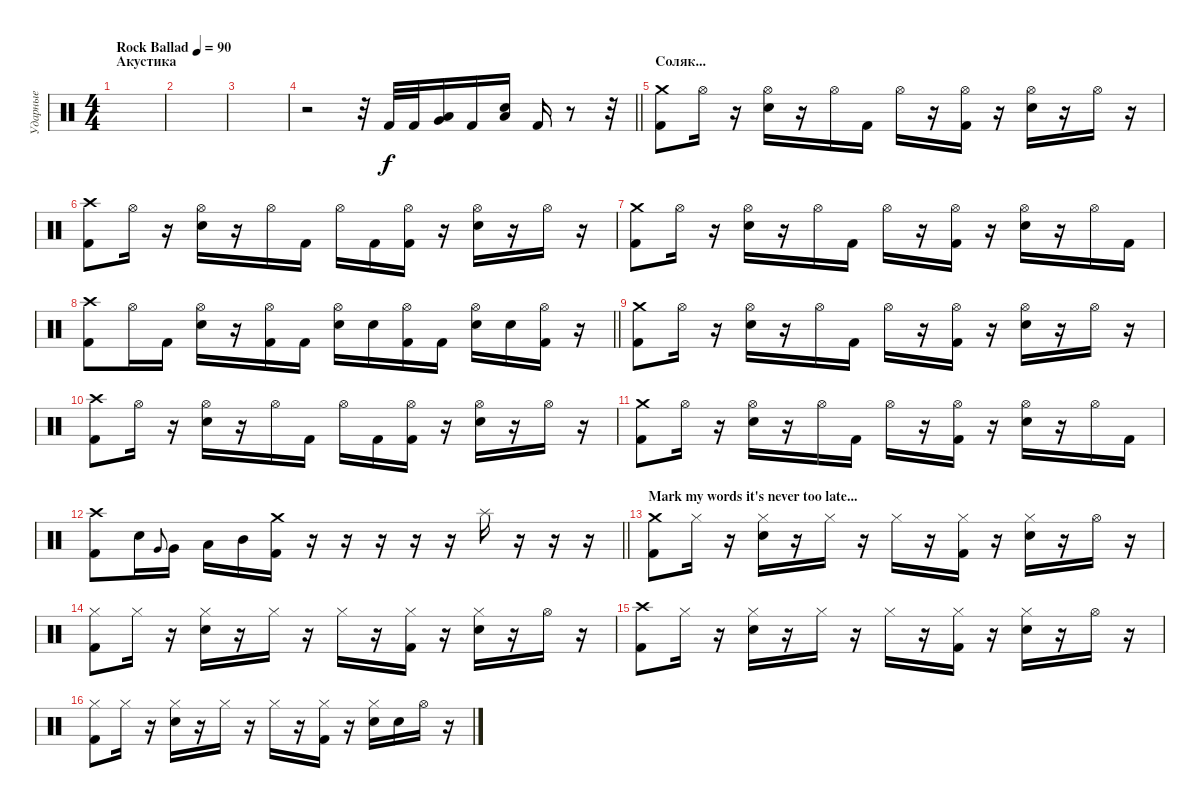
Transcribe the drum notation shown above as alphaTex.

\track ("Ударные" "Ударные") {instrument percussion}
\staff {score}
\articulation defaults
\ts (4 4)
\section ("" "Акустика")
\tempo (90 "Rock Ballad")
\clef neutral
\ks c
|
|
|
\barLineRight lightlight
r.2 r.32 "Kick (hit) 2".32 "Kick (hit) 2".32 ("Very Low Tom (hit)" "Low Tom (hit)").16 "Kick (hit) 2".16 ("Electric Snare (hit)" "Low Tom (hit)").16 "Kick (hit) 2".16 r.8 r.32 |
\section ("" "Соляк...")
("Crash medium (hit)" "Kick (hit) 2").8 "Hi-Hat (open)".16 r.16 ("Hi-Hat (open)" "Electric Snare (hit)").16 r.16 "Hi-Hat (open)".16 "Kick (hit) 2".16 "Hi-Hat (open)".16 r.16 ("Hi-Hat (open)" "Kick (hit) 2").16 r.16 ("Hi-Hat (open)" "Electric Snare (hit)").16 r.16 "Hi-Hat (open)".16 r.16 |
("Crash high (hit)" "Kick (hit) 2").8 "Hi-Hat (open)".16 r.16 ("Hi-Hat (open)" "Electric Snare (hit)").16 r.16 "Hi-Hat (open)".16 "Kick (hit) 2".16 "Hi-Hat (open)".16 "Kick (hit) 2".16 ("Hi-Hat (open)" "Kick (hit) 2").16 r.16 ("Hi-Hat (open)" "Electric Snare (hit)").16 r.16 "Hi-Hat (open)".16 r.16 |
("Crash medium (hit)" "Kick (hit) 2").8 "Hi-Hat (open)".16 r.16 ("Hi-Hat (open)" "Electric Snare (hit)").16 r.16 "Hi-Hat (open)".16 "Kick (hit) 2".16 "Hi-Hat (open)".16 r.16 ("Hi-Hat (open)" "Kick (hit) 2").16 r.16 ("Hi-Hat (open)" "Electric Snare (hit)").16 r.16 "Hi-Hat (open)".16 "Kick (hit) 2".16 |
\barLineRight lightlight
("Crash high (hit)" "Kick (hit) 2").8 "Hi-Hat (open)".16 "Kick (hit) 2".16 ("Hi-Hat (open)" "Electric Snare (hit)").16 r.16 ("Hi-Hat (open)" "Kick (hit) 2").16 "Kick (hit) 2".16 ("Hi-Hat (open)" "Electric Snare (hit)").16 "Electric Snare (hit)".16 ("Hi-Hat (open)" "Kick (hit) 2").16 "Kick (hit) 2".16 ("Hi-Hat (open)" "Electric Snare (hit)").16 "Electric Snare (hit)".16 ("Hi-Hat (open)" "Kick (hit) 2").16 r.16 |
("Crash medium (hit)" "Kick (hit) 2").8 "Hi-Hat (open)".16 r.16 ("Hi-Hat (open)" "Electric Snare (hit)").16 r.16 "Hi-Hat (open)".16 "Kick (hit) 2".16 "Hi-Hat (open)".16 r.16 ("Hi-Hat (open)" "Kick (hit) 2").16 r.16 ("Hi-Hat (open)" "Electric Snare (hit)").16 r.16 "Hi-Hat (open)".16 r.16 |
("Crash high (hit)" "Kick (hit) 2").8 "Hi-Hat (open)".16 r.16 ("Hi-Hat (open)" "Electric Snare (hit)").16 r.16 "Hi-Hat (open)".16 "Kick (hit) 2".16 "Hi-Hat (open)".16 "Kick (hit) 2".16 ("Hi-Hat (open)" "Kick (hit) 2").16 r.16 ("Hi-Hat (open)" "Electric Snare (hit)").16 r.16 "Hi-Hat (open)".16 r.16 |
("Crash medium (hit)" "Kick (hit) 2").8 "Hi-Hat (open)".16 r.16 ("Hi-Hat (open)" "Electric Snare (hit)").16 r.16 "Hi-Hat (open)".16 "Kick (hit) 2".16 "Hi-Hat (open)".16 r.16 ("Hi-Hat (open)" "Kick (hit) 2").16 r.16 ("Hi-Hat (open)" "Electric Snare (hit)").16 r.16 "Hi-Hat (open)".16 "Kick (hit) 2".16 |
\barLineRight lightlight
("Crash high (hit)" "Kick (hit) 2").8 "Electric Snare (hit)".16 "Very Low Tom (hit)".8{gr onbeat} "Very Low Tom (hit)".16 "Low Tom (hit)".16 "Mid Tom (hit)".16 ("Crash medium (hit)" "Kick (hit) 2").16 r.16 r.16 r.16 r.16 r.16 "Splash (hit)".16 r.16 r.16 r.16 |
\section ("" "Mark my words it's never too late...")
("Crash medium (hit)" "Kick (hit) 2").8 "Hi-Hat (closed)".16 r.16 ("Hi-Hat (closed)" "Electric Snare (hit)").16 r.16 "Hi-Hat (closed)".16 r.16 "Hi-Hat (closed)".16 r.16 ("Hi-Hat (closed)" "Kick (hit) 2").16 r.16 ("Hi-Hat (closed)" "Electric Snare (hit)").16 r.16 "Hi-Hat (open)".16 r.16 |
("Hi-Hat (closed)" "Kick (hit) 2").8 "Hi-Hat (closed)".16 r.16 ("Hi-Hat (closed)" "Electric Snare (hit)").16 r.16 "Hi-Hat (closed)".16 r.16 "Hi-Hat (closed)".16 r.16 ("Hi-Hat (closed)" "Kick (hit) 2").16 r.16 ("Hi-Hat (closed)" "Electric Snare (hit)").16 r.16 "Hi-Hat (open)".16 r.16 |
("Crash high (hit)" "Kick (hit) 2").8 "Hi-Hat (closed)".16 r.16 ("Hi-Hat (closed)" "Electric Snare (hit)").16 r.16 "Hi-Hat (closed)".16 r.16 "Hi-Hat (closed)".16 r.16 ("Hi-Hat (closed)" "Kick (hit) 2").16 r.16 ("Hi-Hat (closed)" "Electric Snare (hit)").16 r.16 "Hi-Hat (open)".16 r.16 |
("Hi-Hat (closed)" "Kick (hit) 2").8 "Hi-Hat (closed)".16 r.16 ("Hi-Hat (closed)" "Electric Snare (hit)").16 r.16 "Hi-Hat (closed)".16 r.16 "Hi-Hat (closed)".16 r.16 ("Hi-Hat (closed)" "Kick (hit) 2").16 r.16 ("Hi-Hat (closed)" "Electric Snare (hit)").16 "Electric Snare (hit)".16 "Hi-Hat (open)".16 r.16
